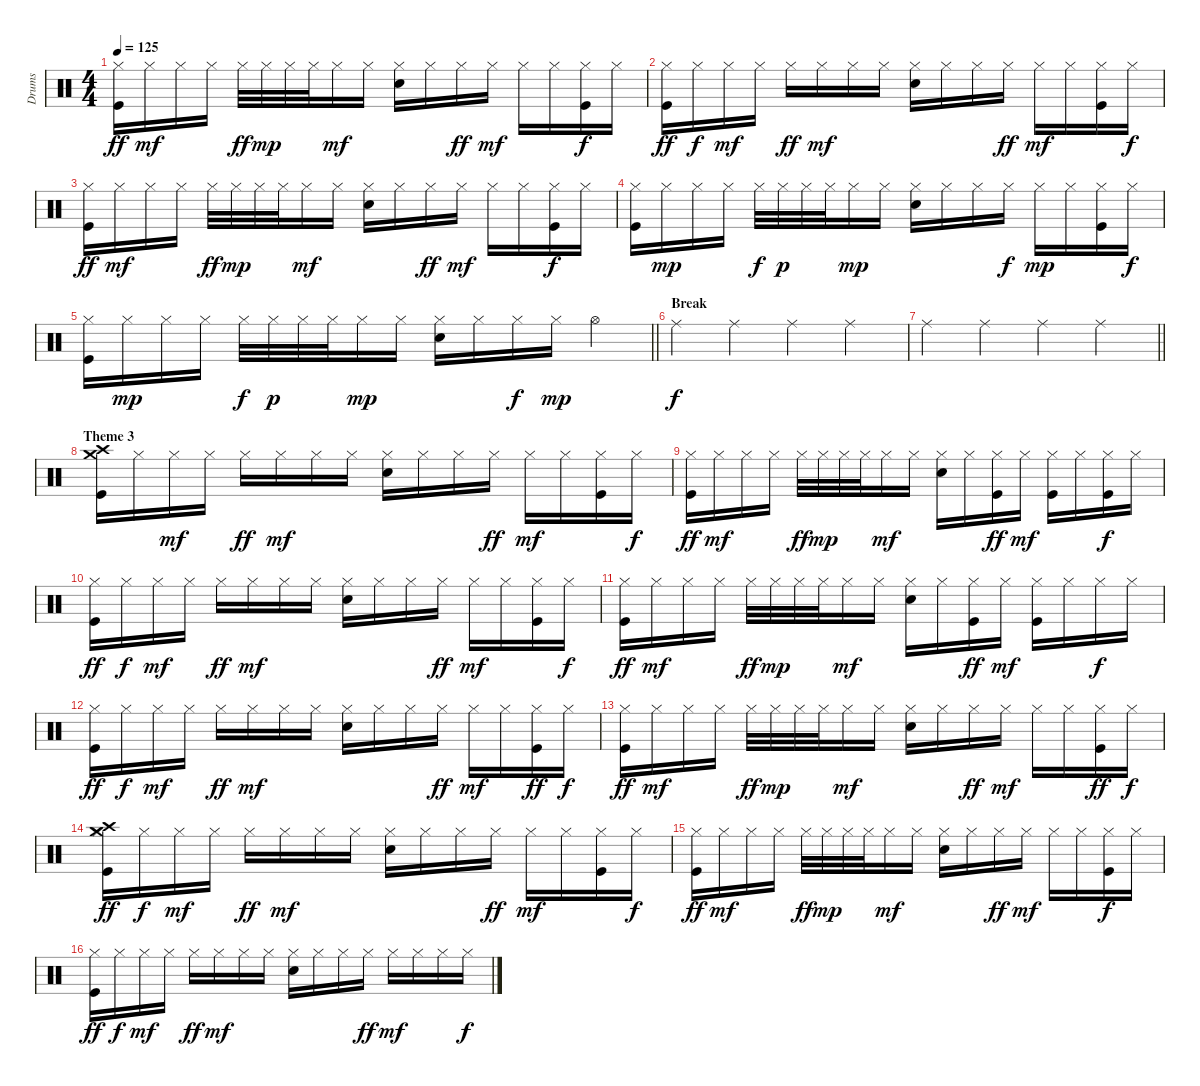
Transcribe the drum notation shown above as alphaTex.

\track ("Drums" "Drums") {instrument percussion}
\staff {score}
\articulation defaults
\ts (4 4)
\tempo 125
\clef neutral
\ks c
("Kick (hit)" "Hi-Hat (closed)").16{dy ff} "Hi-Hat (closed)".16{dy mf} "Hi-Hat (closed)".16 "Hi-Hat (closed)".16 "Hi-Hat (closed)".32{dy ff} "Hi-Hat (closed)".32{dy mp} "Hi-Hat (closed)".32 "Hi-Hat (closed)".32 "Hi-Hat (closed)".16{dy mf} "Hi-Hat (closed)".16 ("Hi-Hat (closed)" "Electric Snare (hit)").16 "Hi-Hat (closed)".16 "Hi-Hat (closed)".16{dy ff} "Hi-Hat (closed)".16{dy mf} "Hi-Hat (closed)".16 "Hi-Hat (closed)".16 ("Hi-Hat (closed)" "Kick (hit)").16{dy f} "Hi-Hat (closed)".16 |
("Hi-Hat (closed)" "Kick (hit)").16{dy ff} "Hi-Hat (closed)".16{dy f} "Hi-Hat (closed)".16{dy mf} "Hi-Hat (closed)".16 "Hi-Hat (closed)".16{dy ff} "Hi-Hat (closed)".16{dy mf} "Hi-Hat (closed)".16 "Hi-Hat (closed)".16 ("Hi-Hat (closed)" "Electric Snare (hit)").16 "Hi-Hat (closed)".16 "Hi-Hat (closed)".16 "Hi-Hat (closed)".16{dy ff} "Hi-Hat (closed)".16{dy mf} "Hi-Hat (closed)".16 ("Hi-Hat (closed)" "Kick (hit)").16 "Hi-Hat (closed)".16{dy f} |
("Kick (hit)" "Hi-Hat (closed)").16{dy ff} "Hi-Hat (closed)".16{dy mf} "Hi-Hat (closed)".16 "Hi-Hat (closed)".16 "Hi-Hat (closed)".32{dy ff} "Hi-Hat (closed)".32{dy mp} "Hi-Hat (closed)".32 "Hi-Hat (closed)".32 "Hi-Hat (closed)".16{dy mf} "Hi-Hat (closed)".16 ("Hi-Hat (closed)" "Electric Snare (hit)").16 "Hi-Hat (closed)".16 "Hi-Hat (closed)".16{dy ff} "Hi-Hat (closed)".16{dy mf} "Hi-Hat (closed)".16 "Hi-Hat (closed)".16 ("Hi-Hat (closed)" "Kick (hit)").16{dy f} "Hi-Hat (closed)".16 |
("Hi-Hat (closed)" "Kick (hit)").16 "Hi-Hat (closed)".16{dy mp} "Hi-Hat (closed)".16 "Hi-Hat (closed)".16 "Hi-Hat (closed)".32{dy f} "Hi-Hat (closed)".32{dy p} "Hi-Hat (closed)".32 "Hi-Hat (closed)".32 "Hi-Hat (closed)".16{dy mp} "Hi-Hat (closed)".16 ("Hi-Hat (closed)" "Electric Snare (hit)").16 "Hi-Hat (closed)".16 "Hi-Hat (closed)".16 "Hi-Hat (closed)".16{dy f} "Hi-Hat (closed)".16{dy mp} "Hi-Hat (closed)".16 ("Hi-Hat (closed)" "Kick (hit)").16 "Hi-Hat (closed)".16{dy f} |
\barLineRight lightlight
("Kick (hit)" "Hi-Hat (closed)").16 "Hi-Hat (closed)".16{dy mp} "Hi-Hat (closed)".16 "Hi-Hat (closed)".16 "Hi-Hat (closed)".32{dy f} "Hi-Hat (closed)".32{dy p} "Hi-Hat (closed)".32 "Hi-Hat (closed)".32 "Hi-Hat (closed)".16{dy mp} "Hi-Hat (closed)".16 ("Hi-Hat (closed)" "Electric Snare (hit)").16 "Hi-Hat (closed)".16 "Hi-Hat (closed)".16{dy f} "Hi-Hat (closed)".16{dy mp} "Hi-Hat (open)".4 |
\section ("" "Break")
"Ride (middle)".4{dy f} "Ride (middle)".4 "Ride (middle)".4 "Ride (middle)".4 |
\barLineRight lightlight "Ride (middle)".4 "Ride (middle)".4 "Ride (middle)".4 "Ride (middle)".4
|
\section ("" "Theme 3")
("Kick (hit)" "Crash medium (hit)" "Crash high (hit)").16 "Hi-Hat (closed)".16 "Hi-Hat (closed)".16{dy mf} "Hi-Hat (closed)".16 "Hi-Hat (closed)".16{dy ff} "Hi-Hat (closed)".16{dy mf} "Hi-Hat (closed)".16 "Hi-Hat (closed)".16 ("Hi-Hat (closed)" "Electric Snare (hit)").16 "Hi-Hat (closed)".16 "Hi-Hat (closed)".16 "Hi-Hat (closed)".16{dy ff} "Hi-Hat (closed)".16{dy mf} "Hi-Hat (closed)".16 ("Hi-Hat (closed)" "Kick (hit)").16 "Hi-Hat (closed)".16{dy f} |
("Hi-Hat (closed)" "Kick (hit)").16{dy ff} "Hi-Hat (closed)".16{dy mf} "Hi-Hat (closed)".16 "Hi-Hat (closed)".16 "Hi-Hat (closed)".32{dy ff} "Hi-Hat (closed)".32{dy mp} "Hi-Hat (closed)".32 "Hi-Hat (closed)".32 "Hi-Hat (closed)".16{dy mf} "Hi-Hat (closed)".16 ("Hi-Hat (closed)" "Electric Snare (hit)").16 "Hi-Hat (closed)".16 ("Hi-Hat (closed)" "Kick (hit)").16{dy ff} "Hi-Hat (closed)".16{dy mf} ("Hi-Hat (closed)" "Kick (hit)").16 "Hi-Hat (closed)".16 ("Hi-Hat (closed)" "Kick (hit)").16{dy f} "Hi-Hat (closed)".16 |
("Hi-Hat (closed)" "Kick (hit)").16{dy ff} "Hi-Hat (closed)".16{dy f} "Hi-Hat (closed)".16{dy mf} "Hi-Hat (closed)".16 "Hi-Hat (closed)".16{dy ff} "Hi-Hat (closed)".16{dy mf} "Hi-Hat (closed)".16 "Hi-Hat (closed)".16 ("Hi-Hat (closed)" "Electric Snare (hit)").16 "Hi-Hat (closed)".16 "Hi-Hat (closed)".16 "Hi-Hat (closed)".16{dy ff} "Hi-Hat (closed)".16{dy mf} "Hi-Hat (closed)".16 ("Hi-Hat (closed)" "Kick (hit)").16 "Hi-Hat (closed)".16{dy f} |
("Hi-Hat (closed)" "Kick (hit)").16{dy ff} "Hi-Hat (closed)".16{dy mf} "Hi-Hat (closed)".16 "Hi-Hat (closed)".16 "Hi-Hat (closed)".32{dy ff} "Hi-Hat (closed)".32{dy mp} "Hi-Hat (closed)".32 "Hi-Hat (closed)".32 "Hi-Hat (closed)".16{dy mf} "Hi-Hat (closed)".16 ("Hi-Hat (closed)" "Electric Snare (hit)").16 "Hi-Hat (closed)".16 ("Hi-Hat (closed)" "Kick (hit)").16{dy ff} "Hi-Hat (closed)".16{dy mf} ("Hi-Hat (closed)" "Kick (hit)").16 "Hi-Hat (closed)".16 "Hi-Hat (closed)".16{dy f} "Hi-Hat (closed)".16 |
("Hi-Hat (closed)" "Kick (hit)").16{dy ff} "Hi-Hat (closed)".16{dy f} "Hi-Hat (closed)".16{dy mf} "Hi-Hat (closed)".16 "Hi-Hat (closed)".16{dy ff} "Hi-Hat (closed)".16{dy mf} "Hi-Hat (closed)".16 "Hi-Hat (closed)".16 ("Hi-Hat (closed)" "Electric Snare (hit)").16 "Hi-Hat (closed)".16 "Hi-Hat (closed)".16 "Hi-Hat (closed)".16{dy ff} "Hi-Hat (closed)".16{dy mf} "Hi-Hat (closed)".16 ("Hi-Hat (closed)" "Kick (hit)").16{dy ff} "Hi-Hat (closed)".16{dy f} |
("Kick (hit)" "Hi-Hat (closed)").16{dy ff} "Hi-Hat (closed)".16{dy mf} "Hi-Hat (closed)".16 "Hi-Hat (closed)".16 "Hi-Hat (closed)".32{dy ff} "Hi-Hat (closed)".32{dy mp} "Hi-Hat (closed)".32 "Hi-Hat (closed)".32 "Hi-Hat (closed)".16{dy mf} "Hi-Hat (closed)".16 ("Hi-Hat (closed)" "Electric Snare (hit)").16 "Hi-Hat (closed)".16 "Hi-Hat (closed)".16{dy ff} "Hi-Hat (closed)".16{dy mf} "Hi-Hat (closed)".16 "Hi-Hat (closed)".16 ("Hi-Hat (closed)" "Kick (hit)").16{dy ff} "Hi-Hat (closed)".16{dy f} |
("Hi-Hat (closed)" "Kick (hit)" "Crash medium (hit)" "Crash high (hit)").16{dy ff} "Hi-Hat (closed)".16{dy f} "Hi-Hat (closed)".16{dy mf} "Hi-Hat (closed)".16 "Hi-Hat (closed)".16{dy ff} "Hi-Hat (closed)".16{dy mf} "Hi-Hat (closed)".16 "Hi-Hat (closed)".16 ("Hi-Hat (closed)" "Electric Snare (hit)").16 "Hi-Hat (closed)".16 "Hi-Hat (closed)".16 "Hi-Hat (closed)".16{dy ff} "Hi-Hat (closed)".16{dy mf} "Hi-Hat (closed)".16 ("Hi-Hat (closed)" "Kick (hit)").16 "Hi-Hat (closed)".16{dy f} |
("Kick (hit)" "Hi-Hat (closed)").16{dy ff} "Hi-Hat (closed)".16{dy mf} "Hi-Hat (closed)".16 "Hi-Hat (closed)".16 "Hi-Hat (closed)".32{dy ff} "Hi-Hat (closed)".32{dy mp} "Hi-Hat (closed)".32 "Hi-Hat (closed)".32 "Hi-Hat (closed)".16{dy mf} "Hi-Hat (closed)".16 ("Hi-Hat (closed)" "Electric Snare (hit)").16 "Hi-Hat (closed)".16 "Hi-Hat (closed)".16{dy ff} "Hi-Hat (closed)".16{dy mf} "Hi-Hat (closed)".16 "Hi-Hat (closed)".16 ("Hi-Hat (closed)" "Kick (hit)").16{dy f} "Hi-Hat (closed)".16 |
("Hi-Hat (closed)" "Kick (hit)").16{dy ff} "Hi-Hat (closed)".16{dy f} "Hi-Hat (closed)".16{dy mf} "Hi-Hat (closed)".16 "Hi-Hat (closed)".16{dy ff} "Hi-Hat (closed)".16{dy mf} "Hi-Hat (closed)".16 "Hi-Hat (closed)".16 ("Hi-Hat (closed)" "Electric Snare (hit)").16 "Hi-Hat (closed)".16 "Hi-Hat (closed)".16 "Hi-Hat (closed)".16{dy ff} "Hi-Hat (closed)".16{dy mf} "Hi-Hat (closed)".16 "Hi-Hat (closed)".16 "Hi-Hat (closed)".16{dy f}
